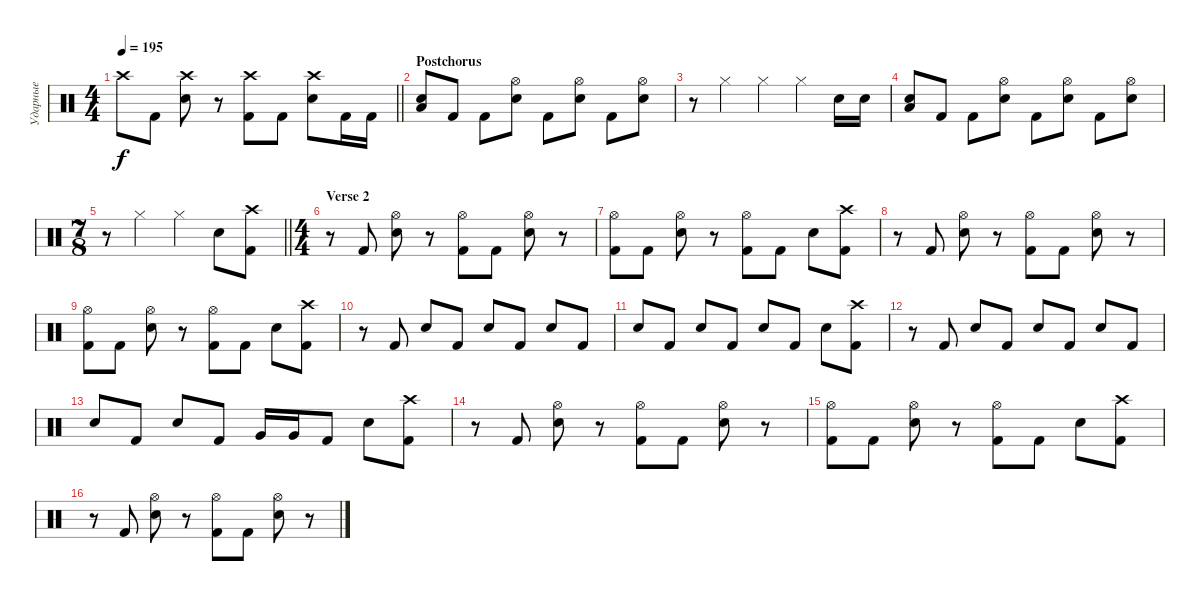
\track ("Ударные" "Ударные") {instrument percussion}
\staff {score}
\articulation defaults
\ts (4 4)
\tempo 195
\clef neutral
\barLineRight lightlight
\ks c "Crash high (hit)".8{dy f} "Kick (hit) 2".8
("Crash high (hit)" "Electric Snare (hit)").8 r.8 ("Crash high (hit)" "Kick (hit) 2").8 "Kick (hit) 2".8 ("Crash high (hit)" "Electric Snare (hit)").8 "Kick (hit) 2".16 "Kick (hit) 2".16 |
\section ("" "Postchorus")
("Low Floor Tom (hit)" "Electric Snare (hit)").8 "Kick (hit) 2".8 "Kick (hit) 2".8 ("Hi-Hat (open)" "Electric Snare (hit)").8 "Kick (hit) 2".8 ("Hi-Hat (open)" "Electric Snare (hit)").8 "Kick (hit) 2".8 ("Hi-Hat (open)" "Electric Snare (hit)").8 |
r.8 "Hi-Hat (closed)".4 "Hi-Hat (closed)".4 "Hi-Hat (closed)".4 "Electric Snare (hit)".16 "Electric Snare (hit)".16 |
("Low Floor Tom (hit)" "Electric Snare (hit)").8 "Kick (hit) 2".8 "Kick (hit) 2".8 ("Hi-Hat (open)" "Electric Snare (hit)").8 "Kick (hit) 2".8 ("Hi-Hat (open)" "Electric Snare (hit)").8 "Kick (hit) 2".8 ("Hi-Hat (open)" "Electric Snare (hit)").8 |
\ts (7 8)
\barLineRight lightlight
r.8 "Hi-Hat (closed)".4 "Hi-Hat (closed)".4 "Electric Snare (hit)".8 ("Crash high (hit)" "Kick (hit) 2").8 |
\ts (4 4)
\section ("" "Verse 2")
r.8 "Kick (hit) 2".8 ("Hi-Hat (open)" "Electric Snare (hit)").8 r.8 ("Hi-Hat (open)" "Kick (hit) 2").8 "Kick (hit) 2".8 ("Hi-Hat (open)" "Electric Snare (hit)").8 r.8 |
("Hi-Hat (open)" "Kick (hit) 2").8 "Kick (hit) 2".8 ("Hi-Hat (open)" "Electric Snare (hit)").8 r.8 ("Hi-Hat (open)" "Kick (hit) 2").8 "Kick (hit) 2".8 "Electric Snare (hit)".8 ("Crash high (hit)" "Kick (hit) 2").8 |
r.8 "Kick (hit) 2".8 ("Hi-Hat (open)" "Electric Snare (hit)").8 r.8 ("Hi-Hat (open)" "Kick (hit) 2").8 "Kick (hit) 2".8 ("Hi-Hat (open)" "Electric Snare (hit)").8 r.8 |
("Hi-Hat (open)" "Kick (hit) 2").8 "Kick (hit) 2".8 ("Hi-Hat (open)" "Electric Snare (hit)").8 r.8 ("Hi-Hat (open)" "Kick (hit) 2").8 "Kick (hit) 2".8 "Electric Snare (hit)".8 ("Crash high (hit)" "Kick (hit) 2").8 |
r.8 "Kick (hit) 2".8 "Snare (hit) 2".8 "Kick (hit) 2".8 "Snare (hit) 2".8 "Kick (hit) 2".8 "Snare (hit) 2".8 "Kick (hit) 2".8 |
"Snare (hit) 2".8 "Kick (hit) 2".8 "Snare (hit) 2".8 "Kick (hit) 2".8 "Snare (hit) 2".8 "Kick (hit) 2".8 "Electric Snare (hit)".8 ("Crash high (hit)" "Kick (hit) 2").8 |
r.8 "Kick (hit) 2".8 "Snare (hit) 2".8 "Kick (hit) 2".8 "Snare (hit) 2".8 "Kick (hit) 2".8 "Snare (hit) 2".8 "Kick (hit) 2".8 |
"Snare (hit) 2".8 "Kick (hit) 2".8 "Snare (hit) 2".8 "Kick (hit) 2".8 "Very Low Tom (hit)".16 "Very Low Tom (hit)".16 "Kick (hit) 2".8 "Electric Snare (hit)".8 ("Crash high (hit)" "Kick (hit) 2").8 |
r.8 "Kick (hit) 2".8 ("Hi-Hat (open)" "Electric Snare (hit)").8 r.8 ("Hi-Hat (open)" "Kick (hit) 2").8 "Kick (hit) 2".8 ("Hi-Hat (open)" "Electric Snare (hit)").8 r.8 |
("Hi-Hat (open)" "Kick (hit) 2").8 "Kick (hit) 2".8 ("Hi-Hat (open)" "Electric Snare (hit)").8 r.8 ("Hi-Hat (open)" "Kick (hit) 2").8 "Kick (hit) 2".8 "Electric Snare (hit)".8 ("Crash high (hit)" "Kick (hit) 2").8 |
r.8 "Kick (hit) 2".8 ("Hi-Hat (open)" "Electric Snare (hit)").8 r.8 ("Hi-Hat (open)" "Kick (hit) 2").8 "Kick (hit) 2".8 ("Hi-Hat (open)" "Electric Snare (hit)").8 r.8
